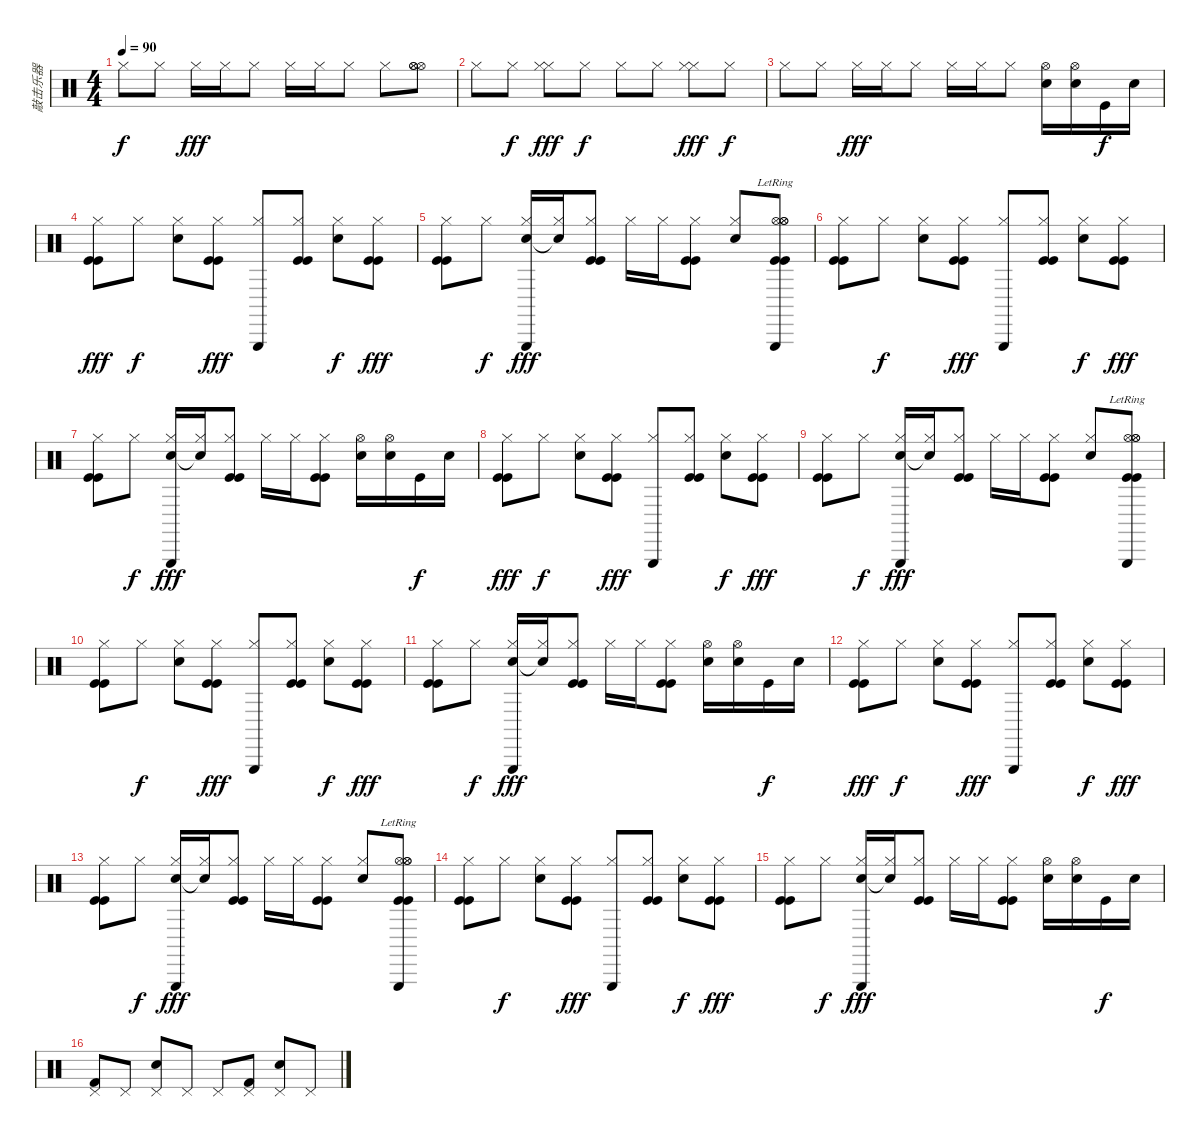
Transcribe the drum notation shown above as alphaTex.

\track ("敲击乐器" "敲击乐器") {instrument percussion}
\staff {score}
\articulation defaults
\ts (4 4)
\tempo 90
\clef neutral
\ks c "Hi-Hat (closed)".8{dy f} "Hi-Hat (closed)".8 "Hi-Hat (closed)".16{dy fff} "Hi-Hat (closed)".16 "Hi-Hat (closed)".8 "Hi-Hat (closed)".16 "Hi-Hat (closed)".16 "Hi-Hat (closed)".8 "Hi-Hat (closed)".8
("Hi-Hat (open)" "Hi-Hat (open)" "Hi-Hat (open)").8 |
"Hi-Hat (closed)".8 "Hi-Hat (closed)".8{dy f} ("Hi-Hat (closed)" "Hi-Hat (closed)").8{dy fff} "Hi-Hat (closed)".8{dy f} "Hi-Hat (closed)".8 "Hi-Hat (closed)".8 ("Hi-Hat (closed)" "Hi-Hat (closed)").8{dy fff} "Hi-Hat (closed)".8{dy f} |
"Hi-Hat (closed)".8 "Hi-Hat (closed)".8 "Hi-Hat (closed)".16{dy fff} "Hi-Hat (closed)".16 "Hi-Hat (closed)".8 "Hi-Hat (closed)".16 "Hi-Hat (closed)".16 "Hi-Hat (closed)".8 ("Hi-Hat (open)" "Electric Snare (hit)").16 ("Hi-Hat (open)" "Electric Snare (hit)").16 "Kick (hit)".16{dy f} "Electric Snare (hit)".16 |
("Hi-Hat (closed)" "Kick (hit)" "Kick (hit)").8{dy fff} "Hi-Hat (closed)".8{dy f} ("Hi-Hat (closed)" "Electric Snare (hit)").8 ("Hi-Hat (closed)" "Kick (hit)" "Kick (hit)").8{dy fff} ("Hi-Hat (closed)" "Triangle (hit)").8 ("Hi-Hat (closed)" "Kick (hit)" "Kick (hit)").8 ("Hi-Hat (closed)" "Electric Snare (hit)").8{dy f} ("Hi-Hat (closed)" "Kick (hit)" "Kick (hit)").8{dy fff} |
("Hi-Hat (closed)" "Kick (hit)" "Kick (hit)").8 "Hi-Hat (closed)".8{dy f} ("Hi-Hat (closed)" "Electric Snare (hit)" "Triangle (hit)").16{dy fff} ("Hi-Hat (closed)" "Snare (hit)"{t}).16 ("Hi-Hat (closed)" "Kick (hit)" "Kick (hit)").8 "Hi-Hat (closed)".16 "Hi-Hat (closed)".16 ("Hi-Hat (closed)" "Kick (hit)" "Kick (hit)").8 ("Hi-Hat (closed)" "Electric Snare (hit)").8 ("Hi-Hat (open)" "Hi-Hat (open)" "Hi-Hat (open)" "Triangle (hit)"{lr} "Kick (hit)" "Kick (hit)").8 |
("Hi-Hat (closed)" "Kick (hit)" "Kick (hit)").8 "Hi-Hat (closed)".8{dy f} ("Hi-Hat (closed)" "Electric Snare (hit)").8 ("Hi-Hat (closed)" "Kick (hit)" "Kick (hit)").8{dy fff} ("Hi-Hat (closed)" "Triangle (hit)").8 ("Hi-Hat (closed)" "Kick (hit)" "Kick (hit)").8 ("Hi-Hat (closed)" "Electric Snare (hit)").8{dy f} ("Hi-Hat (closed)" "Kick (hit)" "Kick (hit)").8{dy fff} |
("Hi-Hat (closed)" "Kick (hit)" "Kick (hit)").8 "Hi-Hat (closed)".8{dy f} ("Hi-Hat (closed)" "Electric Snare (hit)" "Triangle (hit)").16{dy fff} ("Hi-Hat (closed)" "Snare (hit)"{t}).16 ("Hi-Hat (closed)" "Kick (hit)" "Kick (hit)").8 "Hi-Hat (closed)".16 "Hi-Hat (closed)".16 ("Hi-Hat (closed)" "Kick (hit)" "Kick (hit)").8 ("Hi-Hat (open)" "Electric Snare (hit)").16 ("Hi-Hat (open)" "Electric Snare (hit)").16 "Kick (hit)".16{dy f} "Electric Snare (hit)".16 |
("Hi-Hat (closed)" "Kick (hit)" "Kick (hit)").8{dy fff} "Hi-Hat (closed)".8{dy f} ("Hi-Hat (closed)" "Electric Snare (hit)").8 ("Hi-Hat (closed)" "Kick (hit)" "Kick (hit)").8{dy fff} ("Hi-Hat (closed)" "Triangle (hit)").8 ("Hi-Hat (closed)" "Kick (hit)" "Kick (hit)").8 ("Hi-Hat (closed)" "Electric Snare (hit)").8{dy f} ("Hi-Hat (closed)" "Kick (hit)" "Kick (hit)").8{dy fff} |
("Hi-Hat (closed)" "Kick (hit)" "Kick (hit)").8 "Hi-Hat (closed)".8{dy f} ("Hi-Hat (closed)" "Electric Snare (hit)" "Triangle (hit)").16{dy fff} ("Hi-Hat (closed)" "Snare (hit)"{t}).16 ("Hi-Hat (closed)" "Kick (hit)" "Kick (hit)").8 "Hi-Hat (closed)".16 "Hi-Hat (closed)".16 ("Hi-Hat (closed)" "Kick (hit)" "Kick (hit)").8 ("Hi-Hat (closed)" "Electric Snare (hit)").8 ("Hi-Hat (open)" "Hi-Hat (open)" "Hi-Hat (open)" "Triangle (hit)"{lr} "Kick (hit)" "Kick (hit)").8 |
("Hi-Hat (closed)" "Kick (hit)" "Kick (hit)").8 "Hi-Hat (closed)".8{dy f} ("Hi-Hat (closed)" "Electric Snare (hit)").8 ("Hi-Hat (closed)" "Kick (hit)" "Kick (hit)").8{dy fff} ("Hi-Hat (closed)" "Triangle (hit)").8 ("Hi-Hat (closed)" "Kick (hit)" "Kick (hit)").8 ("Hi-Hat (closed)" "Electric Snare (hit)").8{dy f} ("Hi-Hat (closed)" "Kick (hit)" "Kick (hit)").8{dy fff} |
("Hi-Hat (closed)" "Kick (hit)" "Kick (hit)").8 "Hi-Hat (closed)".8{dy f} ("Hi-Hat (closed)" "Electric Snare (hit)" "Triangle (hit)").16{dy fff} ("Hi-Hat (closed)" "Snare (hit)"{t}).16 ("Hi-Hat (closed)" "Kick (hit)" "Kick (hit)").8 "Hi-Hat (closed)".16 "Hi-Hat (closed)".16 ("Hi-Hat (closed)" "Kick (hit)" "Kick (hit)").8 ("Hi-Hat (open)" "Electric Snare (hit)").16 ("Hi-Hat (open)" "Electric Snare (hit)").16 "Kick (hit)".16{dy f} "Electric Snare (hit)".16 |
("Hi-Hat (closed)" "Kick (hit)" "Kick (hit)").8{dy fff} "Hi-Hat (closed)".8{dy f} ("Hi-Hat (closed)" "Electric Snare (hit)").8 ("Hi-Hat (closed)" "Kick (hit)" "Kick (hit)").8{dy fff} ("Hi-Hat (closed)" "Triangle (hit)").8 ("Hi-Hat (closed)" "Kick (hit)" "Kick (hit)").8 ("Hi-Hat (closed)" "Electric Snare (hit)").8{dy f} ("Hi-Hat (closed)" "Kick (hit)" "Kick (hit)").8{dy fff} |
("Hi-Hat (closed)" "Kick (hit)" "Kick (hit)").8 "Hi-Hat (closed)".8{dy f} ("Hi-Hat (closed)" "Electric Snare (hit)" "Triangle (hit)").16{dy fff} ("Hi-Hat (closed)" "Snare (hit)"{t}).16 ("Hi-Hat (closed)" "Kick (hit)" "Kick (hit)").8 "Hi-Hat (closed)".16 "Hi-Hat (closed)".16 ("Hi-Hat (closed)" "Kick (hit)" "Kick (hit)").8 ("Hi-Hat (closed)" "Electric Snare (hit)").8 ("Hi-Hat (open)" "Hi-Hat (open)" "Hi-Hat (open)" "Triangle (hit)"{lr} "Kick (hit)" "Kick (hit)").8 |
("Hi-Hat (closed)" "Kick (hit)" "Kick (hit)").8 "Hi-Hat (closed)".8{dy f} ("Hi-Hat (closed)" "Electric Snare (hit)").8 ("Hi-Hat (closed)" "Kick (hit)" "Kick (hit)").8{dy fff} ("Hi-Hat (closed)" "Triangle (hit)").8 ("Hi-Hat (closed)" "Kick (hit)" "Kick (hit)").8 ("Hi-Hat (closed)" "Electric Snare (hit)").8{dy f} ("Hi-Hat (closed)" "Kick (hit)" "Kick (hit)").8{dy fff} |
("Hi-Hat (closed)" "Kick (hit)" "Kick (hit)").8 "Hi-Hat (closed)".8{dy f} ("Hi-Hat (closed)" "Electric Snare (hit)" "Triangle (hit)").16{dy fff} ("Hi-Hat (closed)" "Snare (hit)"{t}).16 ("Hi-Hat (closed)" "Kick (hit)" "Kick (hit)").8 "Hi-Hat (closed)".16 "Hi-Hat (closed)".16 ("Hi-Hat (closed)" "Kick (hit)" "Kick (hit)").8 ("Hi-Hat (open)" "Electric Snare (hit)").16 ("Hi-Hat (open)" "Electric Snare (hit)").16 "Kick (hit)".16{dy f} "Electric Snare (hit)".16 |
("Pedal Hi-Hat (hit)" "Kick (hit) 2").8 "Pedal Hi-Hat (hit)".8 ("Pedal Hi-Hat (hit)" "Electric Snare (hit)").8 "Pedal Hi-Hat (hit)".8 "Pedal Hi-Hat (hit)".8 ("Pedal Hi-Hat (hit)" "Kick (hit) 2").8 ("Pedal Hi-Hat (hit)" "Electric Snare (hit)").8 "Pedal Hi-Hat (hit)".8
